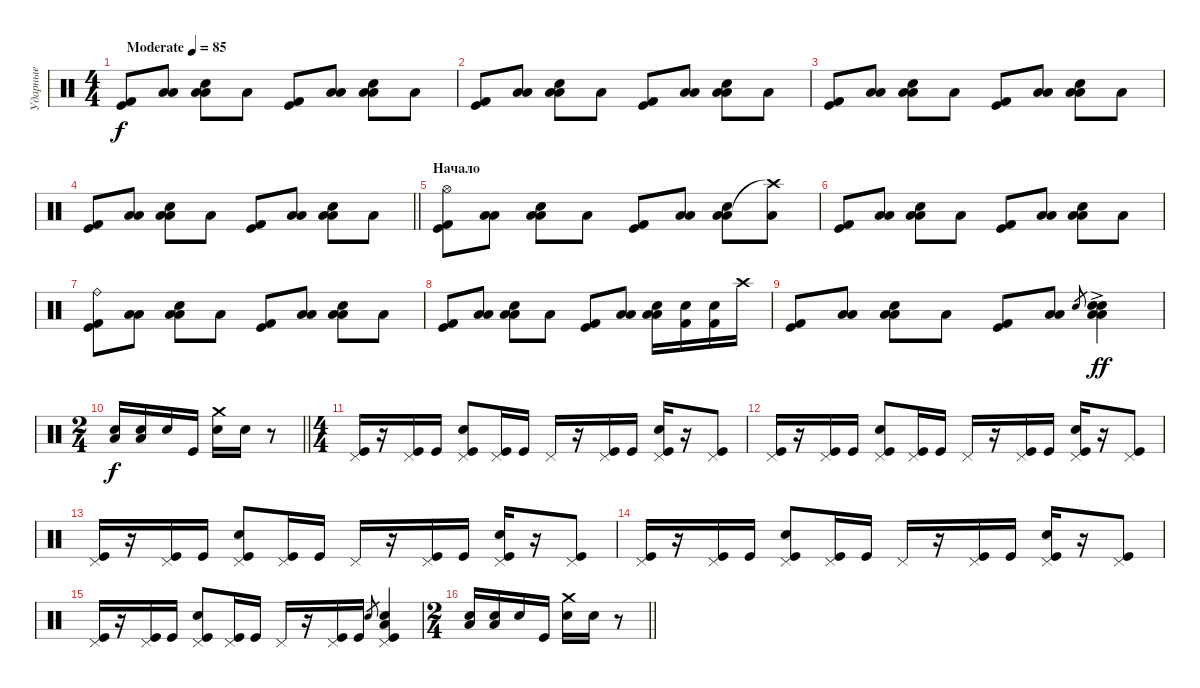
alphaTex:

\track ("Ударные" "Ударные") {instrument percussion}
\staff {score}
\articulation defaults
\ts (4 4)
\tempo (85 "Moderate")
\clef neutral
\ks c
("Kick (hit)" "Kick (hit) 2").8{dy f} ("Low Floor Tom (hit)" "Low Floor Tom (hit)").8 ("Snare (hit) 2" "Low Tom (hit)" "Low Tom (hit)").8 "Low Floor Tom (hit)".8 ("Kick (hit)" "Kick (hit) 2").8 ("Low Floor Tom (hit)" "Low Floor Tom (hit)").8 ("Snare (hit) 2" "Low Tom (hit)" "Low Tom (hit)").8 "Low Floor Tom (hit)".8 |
("Kick (hit)" "Kick (hit) 2").8 ("Low Floor Tom (hit)" "Low Floor Tom (hit)").8 ("Snare (hit) 2" "Low Tom (hit)" "Low Tom (hit)").8 "Low Floor Tom (hit)".8 ("Kick (hit)" "Kick (hit) 2").8 ("Low Floor Tom (hit)" "Low Floor Tom (hit)").8 ("Snare (hit) 2" "Low Tom (hit)" "Low Tom (hit)").8 "Low Floor Tom (hit)".8 |
("Kick (hit)" "Kick (hit) 2").8 ("Low Floor Tom (hit)" "Low Floor Tom (hit)").8 ("Snare (hit) 2" "Low Tom (hit)" "Low Tom (hit)").8 "Low Floor Tom (hit)".8 ("Kick (hit)" "Kick (hit) 2").8 ("Low Floor Tom (hit)" "Low Floor Tom (hit)").8 ("Snare (hit) 2" "Low Tom (hit)" "Low Tom (hit)").8 "Low Floor Tom (hit)".8 |
\barLineRight lightlight
("Kick (hit)" "Kick (hit) 2").8 ("Low Floor Tom (hit)" "Low Floor Tom (hit)").8 ("Snare (hit) 2" "Low Tom (hit)" "Low Tom (hit)").8 "Low Floor Tom (hit)".8 ("Kick (hit)" "Kick (hit) 2").8 ("Low Floor Tom (hit)" "Low Floor Tom (hit)").8 ("Snare (hit) 2" "Low Tom (hit)" "Low Tom (hit)").8 "Low Floor Tom (hit)".8 |
\section ("" "Начало")
("Kick (hit)" "Kick (hit) 2" "Hi-Hat (open)").8 ("Low Floor Tom (hit)" "Low Floor Tom (hit)").8 ("Snare (hit) 2" "Low Tom (hit)" "Low Tom (hit)").8 "Low Floor Tom (hit)".8 ("Kick (hit)" "Kick (hit) 2").8 ("Low Floor Tom (hit)" "Low Floor Tom (hit)").8 ("Snare (hit) 2" "Low Tom (hit)" "Low Tom (hit)").8 ("Low Floor Tom (hit)" "Crash high (hit)"{t}).8 |
("Kick (hit)" "Kick (hit) 2").8 ("Low Floor Tom (hit)" "Low Floor Tom (hit)").8 ("Snare (hit) 2" "Low Tom (hit)" "Low Tom (hit)").8 "Low Floor Tom (hit)".8 ("Kick (hit)" "Kick (hit) 2").8 ("Low Floor Tom (hit)" "Low Floor Tom (hit)").8 ("Snare (hit) 2" "Low Tom (hit)" "Low Tom (hit)").8 "Low Floor Tom (hit)".8 |
("Kick (hit)" "Kick (hit) 2" "Ride (bell)").8 ("Low Floor Tom (hit)" "Low Floor Tom (hit)").8 ("Snare (hit) 2" "Low Tom (hit)" "Low Tom (hit)").8 "Low Floor Tom (hit)".8 ("Kick (hit)" "Kick (hit) 2").8 ("Low Floor Tom (hit)" "Low Floor Tom (hit)").8 ("Snare (hit) 2" "Low Tom (hit)" "Low Tom (hit)").8 "Low Floor Tom (hit)".8 |
("Kick (hit)" "Kick (hit) 2").8 ("Low Floor Tom (hit)" "Low Floor Tom (hit)").8 ("Snare (hit) 2" "Low Tom (hit)" "Low Tom (hit)").8 "Low Floor Tom (hit)".8 ("Kick (hit)" "Kick (hit) 2").8 ("Low Floor Tom (hit)" "Low Floor Tom (hit)").8 ("Snare (hit) 2" "Low Tom (hit)" "Low Tom (hit)").16 ("Kick (hit) 2" "Electric Snare (hit)").16 ("Kick (hit) 2" "Electric Snare (hit)").16 "Crash high (hit)".16 |
("Kick (hit)" "Kick (hit) 2").8 ("Low Floor Tom (hit)" "Low Floor Tom (hit)").8 ("Snare (hit) 2" "Low Tom (hit)" "Low Tom (hit)").8 "Low Floor Tom (hit)".8 ("Kick (hit)" "Kick (hit) 2").8 ("Low Floor Tom (hit)" "Low Floor Tom (hit)").8 "Electric Snare (hit)".8{gr} ("Snare (hit) 2"{ac} "Low Tom (hit)"{ac} "Low Tom (hit)"{ac} "Electric Snare (hit)").4{dy ff} |
\ts (2 4)
\barLineRight lightlight
("Snare (hit) 2" "Low Tom (hit)").16{dy f} ("Snare (hit) 2" "Low Tom (hit)").16 "Electric Snare (hit)".16 "Kick (hit)".16 ("Electric Snare (hit)" "Crash medium (hit)").16 "Snare (hit) 2".16 r.8 |
\ts (4 4)
("Kick (hit)" "Pedal Hi-Hat (hit)").16 r.16 ("Kick (hit)" "Pedal Hi-Hat (hit)").16 "Kick (hit)".16 ("Kick (hit)" "Pedal Hi-Hat (hit)" "Electric Snare (hit)").8 ("Kick (hit)" "Pedal Hi-Hat (hit)").16 "Kick (hit)".16 "Pedal Hi-Hat (hit)".16 r.16 ("Kick (hit)" "Pedal Hi-Hat (hit)").16 "Kick (hit)".16 ("Kick (hit)" "Pedal Hi-Hat (hit)" "Electric Snare (hit)").16 r.16 ("Kick (hit)" "Pedal Hi-Hat (hit)").8 |
("Kick (hit)" "Pedal Hi-Hat (hit)").16 r.16 ("Kick (hit)" "Pedal Hi-Hat (hit)").16 "Kick (hit)".16 ("Kick (hit)" "Pedal Hi-Hat (hit)" "Electric Snare (hit)").8 ("Kick (hit)" "Pedal Hi-Hat (hit)").16 "Kick (hit)".16 "Pedal Hi-Hat (hit)".16 r.16 ("Kick (hit)" "Pedal Hi-Hat (hit)").16 "Kick (hit)".16 ("Kick (hit)" "Pedal Hi-Hat (hit)" "Electric Snare (hit)").16 r.16 ("Kick (hit)" "Pedal Hi-Hat (hit)").8 |
("Kick (hit)" "Pedal Hi-Hat (hit)").16 r.16 ("Kick (hit)" "Pedal Hi-Hat (hit)").16 "Kick (hit)".16 ("Kick (hit)" "Pedal Hi-Hat (hit)" "Electric Snare (hit)").8 ("Kick (hit)" "Pedal Hi-Hat (hit)").16 "Kick (hit)".16 "Pedal Hi-Hat (hit)".16 r.16 ("Kick (hit)" "Pedal Hi-Hat (hit)").16 "Kick (hit)".16 ("Kick (hit)" "Pedal Hi-Hat (hit)" "Electric Snare (hit)").16 r.16 ("Kick (hit)" "Pedal Hi-Hat (hit)").8 |
("Kick (hit)" "Pedal Hi-Hat (hit)").16 r.16 ("Kick (hit)" "Pedal Hi-Hat (hit)").16 "Kick (hit)".16 ("Kick (hit)" "Pedal Hi-Hat (hit)" "Electric Snare (hit)").8 ("Kick (hit)" "Pedal Hi-Hat (hit)").16 "Kick (hit)".16 "Pedal Hi-Hat (hit)".16 r.16 ("Kick (hit)" "Pedal Hi-Hat (hit)").16 "Kick (hit)".16 ("Kick (hit)" "Pedal Hi-Hat (hit)" "Electric Snare (hit)").16 r.16 ("Kick (hit)" "Pedal Hi-Hat (hit)").8 |
("Kick (hit)" "Pedal Hi-Hat (hit)").16 r.16 ("Kick (hit)" "Pedal Hi-Hat (hit)").16 "Kick (hit)".16 ("Kick (hit)" "Pedal Hi-Hat (hit)" "Electric Snare (hit)").8 ("Kick (hit)" "Pedal Hi-Hat (hit)").16 "Kick (hit)".16 "Pedal Hi-Hat (hit)".16 r.16 ("Kick (hit)" "Pedal Hi-Hat (hit)").16 "Kick (hit)".16 "Electric Snare (hit)".8{gr} ("Kick (hit)" "Low Tom (hit)" "Pedal Hi-Hat (hit)" "Electric Snare (hit)").4 |
\ts (2 4)
\barLineRight lightlight
("Snare (hit) 2" "Low Tom (hit)").16 ("Snare (hit) 2" "Low Tom (hit)").16 "Electric Snare (hit)".16 "Kick (hit)".16 ("Electric Snare (hit)" "Crash medium (hit)").16 "Snare (hit) 2".16 r.8
